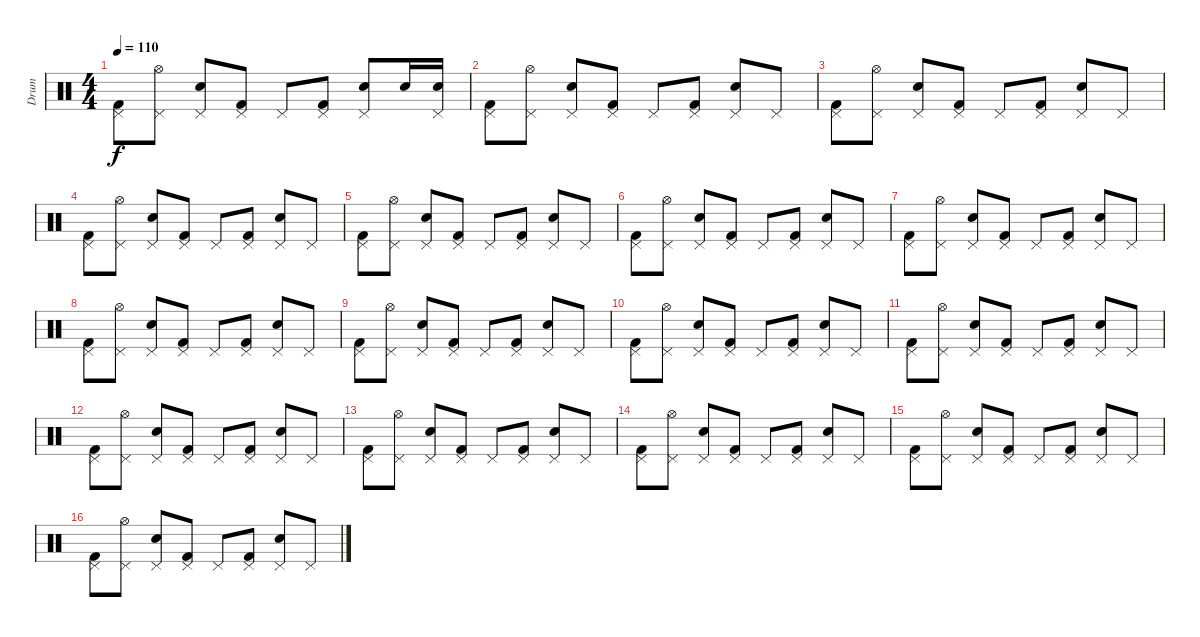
\track ("Drum " "Drum ") {instrument percussion}
\staff {score}
\articulation defaults
\ts (4 4)
\tempo 110
\clef neutral
\ks c
("Pedal Hi-Hat (hit)" "Kick (hit) 2").8{dy f} ("Pedal Hi-Hat (hit)" "Hi-Hat (open)").8 ("Pedal Hi-Hat (hit)" "Snare (hit) 2").8 ("Pedal Hi-Hat (hit)" "Kick (hit) 2").8 "Pedal Hi-Hat (hit)".8 ("Pedal Hi-Hat (hit)" "Kick (hit) 2").8 ("Pedal Hi-Hat (hit)" "Snare (hit) 2").8 "Snare (hit) 2".16 ("Pedal Hi-Hat (hit)" "Snare (hit) 2").16 |
("Pedal Hi-Hat (hit)" "Kick (hit) 2").8 ("Pedal Hi-Hat (hit)" "Hi-Hat (open)").8 ("Pedal Hi-Hat (hit)" "Snare (hit) 2").8 ("Pedal Hi-Hat (hit)" "Kick (hit) 2").8 "Pedal Hi-Hat (hit)".8 ("Pedal Hi-Hat (hit)" "Kick (hit) 2").8 ("Pedal Hi-Hat (hit)" "Snare (hit) 2").8 "Pedal Hi-Hat (hit)".8 |
("Pedal Hi-Hat (hit)" "Kick (hit) 2").8 ("Pedal Hi-Hat (hit)" "Hi-Hat (open)").8 ("Pedal Hi-Hat (hit)" "Snare (hit) 2").8 ("Pedal Hi-Hat (hit)" "Kick (hit) 2").8 "Pedal Hi-Hat (hit)".8 ("Pedal Hi-Hat (hit)" "Kick (hit) 2").8 ("Pedal Hi-Hat (hit)" "Snare (hit) 2").8 "Pedal Hi-Hat (hit)".8 |
("Pedal Hi-Hat (hit)" "Kick (hit) 2").8 ("Pedal Hi-Hat (hit)" "Hi-Hat (open)").8 ("Pedal Hi-Hat (hit)" "Snare (hit) 2").8 ("Pedal Hi-Hat (hit)" "Kick (hit) 2").8 "Pedal Hi-Hat (hit)".8 ("Pedal Hi-Hat (hit)" "Kick (hit) 2").8 ("Pedal Hi-Hat (hit)" "Snare (hit) 2").8 "Pedal Hi-Hat (hit)".8 |
("Pedal Hi-Hat (hit)" "Kick (hit) 2").8 ("Pedal Hi-Hat (hit)" "Hi-Hat (open)").8 ("Pedal Hi-Hat (hit)" "Snare (hit) 2").8 ("Pedal Hi-Hat (hit)" "Kick (hit) 2").8 "Pedal Hi-Hat (hit)".8 ("Pedal Hi-Hat (hit)" "Kick (hit) 2").8 ("Pedal Hi-Hat (hit)" "Snare (hit) 2").8 "Pedal Hi-Hat (hit)".8 |
("Pedal Hi-Hat (hit)" "Kick (hit) 2").8 ("Pedal Hi-Hat (hit)" "Hi-Hat (open)").8 ("Pedal Hi-Hat (hit)" "Snare (hit) 2").8 ("Pedal Hi-Hat (hit)" "Kick (hit) 2").8 "Pedal Hi-Hat (hit)".8 ("Pedal Hi-Hat (hit)" "Kick (hit) 2").8 ("Pedal Hi-Hat (hit)" "Snare (hit) 2").8 "Pedal Hi-Hat (hit)".8 |
("Pedal Hi-Hat (hit)" "Kick (hit) 2").8 ("Pedal Hi-Hat (hit)" "Hi-Hat (open)").8 ("Pedal Hi-Hat (hit)" "Snare (hit) 2").8 ("Pedal Hi-Hat (hit)" "Kick (hit) 2").8 "Pedal Hi-Hat (hit)".8 ("Pedal Hi-Hat (hit)" "Kick (hit) 2").8 ("Pedal Hi-Hat (hit)" "Snare (hit) 2").8 "Pedal Hi-Hat (hit)".8 |
("Pedal Hi-Hat (hit)" "Kick (hit) 2").8 ("Pedal Hi-Hat (hit)" "Hi-Hat (open)").8 ("Pedal Hi-Hat (hit)" "Snare (hit) 2").8 ("Pedal Hi-Hat (hit)" "Kick (hit) 2").8 "Pedal Hi-Hat (hit)".8 ("Pedal Hi-Hat (hit)" "Kick (hit) 2").8 ("Pedal Hi-Hat (hit)" "Snare (hit) 2").8 "Pedal Hi-Hat (hit)".8 |
("Pedal Hi-Hat (hit)" "Kick (hit) 2").8 ("Pedal Hi-Hat (hit)" "Hi-Hat (open)").8 ("Pedal Hi-Hat (hit)" "Snare (hit) 2").8 ("Pedal Hi-Hat (hit)" "Kick (hit) 2").8 "Pedal Hi-Hat (hit)".8 ("Pedal Hi-Hat (hit)" "Kick (hit) 2").8 ("Pedal Hi-Hat (hit)" "Snare (hit) 2").8 "Pedal Hi-Hat (hit)".8 |
("Pedal Hi-Hat (hit)" "Kick (hit) 2").8 ("Pedal Hi-Hat (hit)" "Hi-Hat (open)").8 ("Pedal Hi-Hat (hit)" "Snare (hit) 2").8 ("Pedal Hi-Hat (hit)" "Kick (hit) 2").8 "Pedal Hi-Hat (hit)".8 ("Pedal Hi-Hat (hit)" "Kick (hit) 2").8 ("Pedal Hi-Hat (hit)" "Snare (hit) 2").8 "Pedal Hi-Hat (hit)".8 |
("Pedal Hi-Hat (hit)" "Kick (hit) 2").8 ("Pedal Hi-Hat (hit)" "Hi-Hat (open)").8 ("Pedal Hi-Hat (hit)" "Snare (hit) 2").8 ("Pedal Hi-Hat (hit)" "Kick (hit) 2").8 "Pedal Hi-Hat (hit)".8 ("Pedal Hi-Hat (hit)" "Kick (hit) 2").8 ("Pedal Hi-Hat (hit)" "Snare (hit) 2").8 "Pedal Hi-Hat (hit)".8 |
("Pedal Hi-Hat (hit)" "Kick (hit) 2").8 ("Pedal Hi-Hat (hit)" "Hi-Hat (open)").8 ("Pedal Hi-Hat (hit)" "Snare (hit) 2").8 ("Pedal Hi-Hat (hit)" "Kick (hit) 2").8 "Pedal Hi-Hat (hit)".8 ("Pedal Hi-Hat (hit)" "Kick (hit) 2").8 ("Pedal Hi-Hat (hit)" "Snare (hit) 2").8 "Pedal Hi-Hat (hit)".8 |
("Pedal Hi-Hat (hit)" "Kick (hit) 2").8 ("Pedal Hi-Hat (hit)" "Hi-Hat (open)").8 ("Pedal Hi-Hat (hit)" "Snare (hit) 2").8 ("Pedal Hi-Hat (hit)" "Kick (hit) 2").8 "Pedal Hi-Hat (hit)".8 ("Pedal Hi-Hat (hit)" "Kick (hit) 2").8 ("Pedal Hi-Hat (hit)" "Snare (hit) 2").8 "Pedal Hi-Hat (hit)".8 |
("Pedal Hi-Hat (hit)" "Kick (hit) 2").8 ("Pedal Hi-Hat (hit)" "Hi-Hat (open)").8 ("Pedal Hi-Hat (hit)" "Snare (hit) 2").8 ("Pedal Hi-Hat (hit)" "Kick (hit) 2").8 "Pedal Hi-Hat (hit)".8 ("Pedal Hi-Hat (hit)" "Kick (hit) 2").8 ("Pedal Hi-Hat (hit)" "Snare (hit) 2").8 "Pedal Hi-Hat (hit)".8 |
("Pedal Hi-Hat (hit)" "Kick (hit) 2").8 ("Pedal Hi-Hat (hit)" "Hi-Hat (open)").8 ("Pedal Hi-Hat (hit)" "Snare (hit) 2").8 ("Pedal Hi-Hat (hit)" "Kick (hit) 2").8 "Pedal Hi-Hat (hit)".8 ("Pedal Hi-Hat (hit)" "Kick (hit) 2").8 ("Pedal Hi-Hat (hit)" "Snare (hit) 2").8 "Pedal Hi-Hat (hit)".8 |
("Pedal Hi-Hat (hit)" "Kick (hit) 2").8 ("Pedal Hi-Hat (hit)" "Hi-Hat (open)").8 ("Pedal Hi-Hat (hit)" "Snare (hit) 2").8 ("Pedal Hi-Hat (hit)" "Kick (hit) 2").8 "Pedal Hi-Hat (hit)".8 ("Pedal Hi-Hat (hit)" "Kick (hit) 2").8 ("Pedal Hi-Hat (hit)" "Snare (hit) 2").8 "Pedal Hi-Hat (hit)".8
